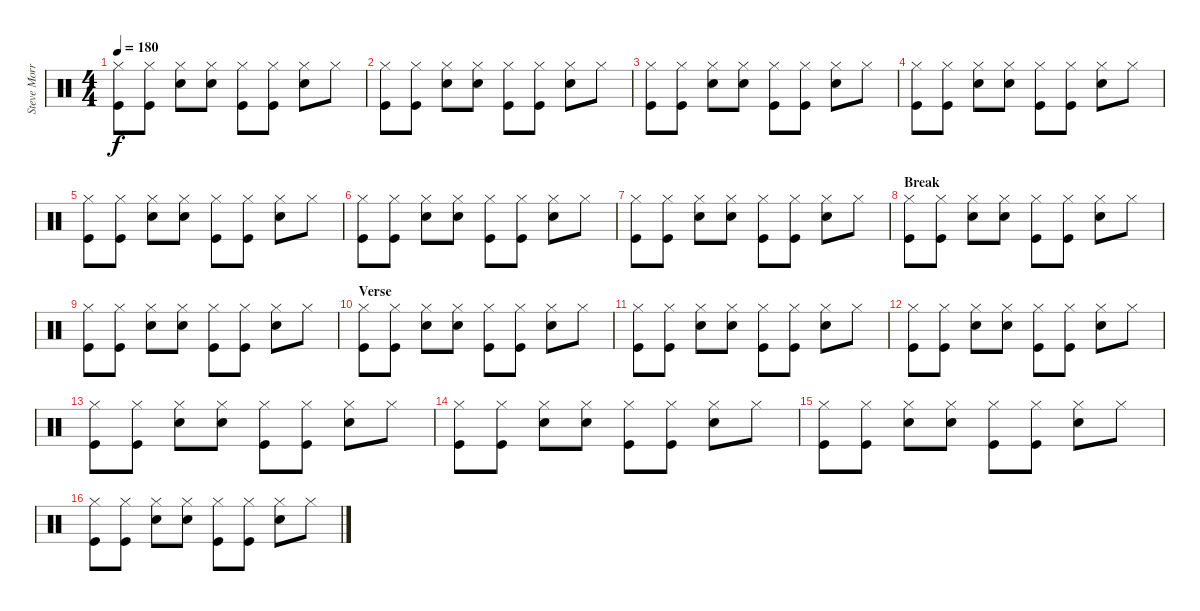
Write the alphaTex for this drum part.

\track ("Steve Morris" "Steve Morr") {instrument percussion}
\staff {score}
\articulation defaults
\ts (4 4)
\tempo 180
\clef neutral
\ks c
("Hi-Hat (closed)" "Kick (hit)").8{dy f} ("Hi-Hat (closed)" "Kick (hit)").8 ("Hi-Hat (closed)" "Electric Snare (hit)").8 ("Hi-Hat (closed)" "Electric Snare (hit)").8 ("Hi-Hat (closed)" "Kick (hit)").8 ("Hi-Hat (closed)" "Kick (hit)").8 ("Hi-Hat (closed)" "Electric Snare (hit)").8 "Hi-Hat (closed)".8 |
("Hi-Hat (closed)" "Kick (hit)").8 ("Hi-Hat (closed)" "Kick (hit)").8 ("Hi-Hat (closed)" "Electric Snare (hit)").8 ("Hi-Hat (closed)" "Electric Snare (hit)").8 ("Hi-Hat (closed)" "Kick (hit)").8 ("Hi-Hat (closed)" "Kick (hit)").8 ("Hi-Hat (closed)" "Electric Snare (hit)").8 "Hi-Hat (closed)".8 |
("Hi-Hat (closed)" "Kick (hit)").8 ("Hi-Hat (closed)" "Kick (hit)").8 ("Hi-Hat (closed)" "Electric Snare (hit)").8 ("Hi-Hat (closed)" "Electric Snare (hit)").8 ("Hi-Hat (closed)" "Kick (hit)").8 ("Hi-Hat (closed)" "Kick (hit)").8 ("Hi-Hat (closed)" "Electric Snare (hit)").8 "Hi-Hat (closed)".8 |
("Hi-Hat (closed)" "Kick (hit)").8 ("Hi-Hat (closed)" "Kick (hit)").8 ("Hi-Hat (closed)" "Electric Snare (hit)").8 ("Hi-Hat (closed)" "Electric Snare (hit)").8 ("Hi-Hat (closed)" "Kick (hit)").8 ("Hi-Hat (closed)" "Kick (hit)").8 ("Hi-Hat (closed)" "Electric Snare (hit)").8 "Hi-Hat (closed)".8 |
("Hi-Hat (closed)" "Kick (hit)").8 ("Hi-Hat (closed)" "Kick (hit)").8 ("Hi-Hat (closed)" "Electric Snare (hit)").8 ("Hi-Hat (closed)" "Electric Snare (hit)").8 ("Hi-Hat (closed)" "Kick (hit)").8 ("Hi-Hat (closed)" "Kick (hit)").8 ("Hi-Hat (closed)" "Electric Snare (hit)").8 "Hi-Hat (closed)".8 |
("Hi-Hat (closed)" "Kick (hit)").8 ("Hi-Hat (closed)" "Kick (hit)").8 ("Hi-Hat (closed)" "Electric Snare (hit)").8 ("Hi-Hat (closed)" "Electric Snare (hit)").8 ("Hi-Hat (closed)" "Kick (hit)").8 ("Hi-Hat (closed)" "Kick (hit)").8 ("Hi-Hat (closed)" "Electric Snare (hit)").8 "Hi-Hat (closed)".8 |
("Hi-Hat (closed)" "Kick (hit)").8 ("Hi-Hat (closed)" "Kick (hit)").8 ("Hi-Hat (closed)" "Electric Snare (hit)").8 ("Hi-Hat (closed)" "Electric Snare (hit)").8 ("Hi-Hat (closed)" "Kick (hit)").8 ("Hi-Hat (closed)" "Kick (hit)").8 ("Hi-Hat (closed)" "Electric Snare (hit)").8 "Hi-Hat (closed)".8 |
\section ("" "Break")
("Hi-Hat (closed)" "Kick (hit)").8 ("Hi-Hat (closed)" "Kick (hit)").8 ("Hi-Hat (closed)" "Electric Snare (hit)").8 ("Hi-Hat (closed)" "Electric Snare (hit)").8 ("Hi-Hat (closed)" "Kick (hit)").8 ("Hi-Hat (closed)" "Kick (hit)").8 ("Hi-Hat (closed)" "Electric Snare (hit)").8 "Hi-Hat (closed)".8 |
("Hi-Hat (closed)" "Kick (hit)").8 ("Hi-Hat (closed)" "Kick (hit)").8 ("Hi-Hat (closed)" "Electric Snare (hit)").8 ("Hi-Hat (closed)" "Electric Snare (hit)").8 ("Hi-Hat (closed)" "Kick (hit)").8 ("Hi-Hat (closed)" "Kick (hit)").8 ("Hi-Hat (closed)" "Electric Snare (hit)").8 "Hi-Hat (closed)".8 |
\section ("" "Verse")
("Hi-Hat (closed)" "Kick (hit)").8 ("Hi-Hat (closed)" "Kick (hit)").8 ("Hi-Hat (closed)" "Electric Snare (hit)").8 ("Hi-Hat (closed)" "Electric Snare (hit)").8 ("Hi-Hat (closed)" "Kick (hit)").8 ("Hi-Hat (closed)" "Kick (hit)").8 ("Hi-Hat (closed)" "Electric Snare (hit)").8 "Hi-Hat (closed)".8 |
("Hi-Hat (closed)" "Kick (hit)").8 ("Hi-Hat (closed)" "Kick (hit)").8 ("Hi-Hat (closed)" "Electric Snare (hit)").8 ("Hi-Hat (closed)" "Electric Snare (hit)").8 ("Hi-Hat (closed)" "Kick (hit)").8 ("Hi-Hat (closed)" "Kick (hit)").8 ("Hi-Hat (closed)" "Electric Snare (hit)").8 "Hi-Hat (closed)".8 |
("Hi-Hat (closed)" "Kick (hit)").8 ("Hi-Hat (closed)" "Kick (hit)").8 ("Hi-Hat (closed)" "Electric Snare (hit)").8 ("Hi-Hat (closed)" "Electric Snare (hit)").8 ("Hi-Hat (closed)" "Kick (hit)").8 ("Hi-Hat (closed)" "Kick (hit)").8 ("Hi-Hat (closed)" "Electric Snare (hit)").8 "Hi-Hat (closed)".8 |
("Hi-Hat (closed)" "Kick (hit)").8 ("Hi-Hat (closed)" "Kick (hit)").8 ("Hi-Hat (closed)" "Electric Snare (hit)").8 ("Hi-Hat (closed)" "Electric Snare (hit)").8 ("Hi-Hat (closed)" "Kick (hit)").8 ("Hi-Hat (closed)" "Kick (hit)").8 ("Hi-Hat (closed)" "Electric Snare (hit)").8 "Hi-Hat (closed)".8 |
("Hi-Hat (closed)" "Kick (hit)").8 ("Hi-Hat (closed)" "Kick (hit)").8 ("Hi-Hat (closed)" "Electric Snare (hit)").8 ("Hi-Hat (closed)" "Electric Snare (hit)").8 ("Hi-Hat (closed)" "Kick (hit)").8 ("Hi-Hat (closed)" "Kick (hit)").8 ("Hi-Hat (closed)" "Electric Snare (hit)").8 "Hi-Hat (closed)".8 |
("Hi-Hat (closed)" "Kick (hit)").8 ("Hi-Hat (closed)" "Kick (hit)").8 ("Hi-Hat (closed)" "Electric Snare (hit)").8 ("Hi-Hat (closed)" "Electric Snare (hit)").8 ("Hi-Hat (closed)" "Kick (hit)").8 ("Hi-Hat (closed)" "Kick (hit)").8 ("Hi-Hat (closed)" "Electric Snare (hit)").8 "Hi-Hat (closed)".8 |
("Hi-Hat (closed)" "Kick (hit)").8 ("Hi-Hat (closed)" "Kick (hit)").8 ("Hi-Hat (closed)" "Electric Snare (hit)").8 ("Hi-Hat (closed)" "Electric Snare (hit)").8 ("Hi-Hat (closed)" "Kick (hit)").8 ("Hi-Hat (closed)" "Kick (hit)").8 ("Hi-Hat (closed)" "Electric Snare (hit)").8 "Hi-Hat (closed)".8
